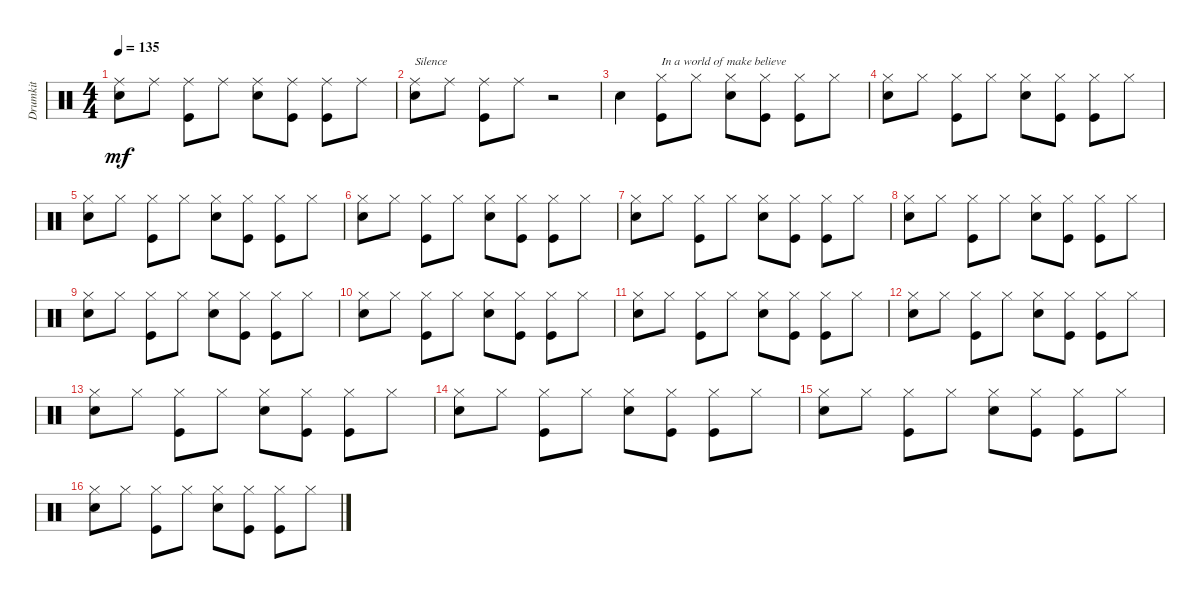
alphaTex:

\track ("Drumkit" "Drumkit") {instrument percussion}
\staff {score}
\articulation defaults
\ts (4 4)
\tempo 135
\clef neutral
\ks c
("Snare (hit) 2" "Ride (middle)").8{dy mf} "Ride (middle)".8 ("Kick (hit)" "Ride (middle)").8 "Ride (middle)".8 ("Snare (hit) 2" "Ride (middle)").8 ("Kick (hit)" "Ride (middle)").8 ("Kick (hit)" "Ride (middle)").8 "Ride (middle)".8 |
("Snare (hit) 2" "Ride (middle)").8{txt "Silence"} "Ride (middle)".8 ("Kick (hit)" "Ride (middle)").8 "Ride (middle)".8 r.2 |
"Snare (hit) 2".4 ("Hi-Hat (closed)" "Kick (hit)").8{txt "In a world of make believe"} "Hi-Hat (closed)".8 ("Hi-Hat (closed)" "Snare (hit) 2").8 ("Hi-Hat (closed)" "Kick (hit)").8 ("Hi-Hat (closed)" "Kick (hit)").8 "Hi-Hat (closed)".8 |
("Snare (hit) 2" "Hi-Hat (closed)").8 "Hi-Hat (closed)".8 ("Hi-Hat (closed)" "Kick (hit)").8 "Hi-Hat (closed)".8 ("Hi-Hat (closed)" "Snare (hit) 2").8 ("Hi-Hat (closed)" "Kick (hit)").8 ("Hi-Hat (closed)" "Kick (hit)").8 "Hi-Hat (closed)".8 |
("Snare (hit) 2" "Hi-Hat (closed)").8 "Hi-Hat (closed)".8 ("Hi-Hat (closed)" "Kick (hit)").8 "Hi-Hat (closed)".8 ("Hi-Hat (closed)" "Snare (hit) 2").8 ("Hi-Hat (closed)" "Kick (hit)").8 ("Hi-Hat (closed)" "Kick (hit)").8 "Hi-Hat (closed)".8 |
("Snare (hit) 2" "Hi-Hat (closed)").8 "Hi-Hat (closed)".8 ("Hi-Hat (closed)" "Kick (hit)").8 "Hi-Hat (closed)".8 ("Hi-Hat (closed)" "Snare (hit) 2").8 ("Hi-Hat (closed)" "Kick (hit)").8 ("Hi-Hat (closed)" "Kick (hit)").8 "Hi-Hat (closed)".8 |
("Snare (hit) 2" "Hi-Hat (closed)").8 "Hi-Hat (closed)".8 ("Hi-Hat (closed)" "Kick (hit)").8 "Hi-Hat (closed)".8 ("Hi-Hat (closed)" "Snare (hit) 2").8 ("Hi-Hat (closed)" "Kick (hit)").8 ("Hi-Hat (closed)" "Kick (hit)").8 "Hi-Hat (closed)".8 |
("Snare (hit) 2" "Hi-Hat (closed)").8 "Hi-Hat (closed)".8 ("Hi-Hat (closed)" "Kick (hit)").8 "Hi-Hat (closed)".8 ("Hi-Hat (closed)" "Snare (hit) 2").8 ("Hi-Hat (closed)" "Kick (hit)").8 ("Hi-Hat (closed)" "Kick (hit)").8 "Hi-Hat (closed)".8 |
("Snare (hit) 2" "Hi-Hat (closed)").8 "Hi-Hat (closed)".8 ("Hi-Hat (closed)" "Kick (hit)").8 "Hi-Hat (closed)".8 ("Hi-Hat (closed)" "Snare (hit) 2").8 ("Hi-Hat (closed)" "Kick (hit)").8 ("Hi-Hat (closed)" "Kick (hit)").8 "Hi-Hat (closed)".8 |
("Snare (hit) 2" "Hi-Hat (closed)").8 "Hi-Hat (closed)".8 ("Hi-Hat (closed)" "Kick (hit)").8 "Hi-Hat (closed)".8 ("Hi-Hat (closed)" "Snare (hit) 2").8 ("Hi-Hat (closed)" "Kick (hit)").8 ("Hi-Hat (closed)" "Kick (hit)").8 "Hi-Hat (closed)".8 |
("Snare (hit) 2" "Hi-Hat (closed)").8 "Hi-Hat (closed)".8 ("Hi-Hat (closed)" "Kick (hit)").8 "Hi-Hat (closed)".8 ("Hi-Hat (closed)" "Snare (hit) 2").8 ("Hi-Hat (closed)" "Kick (hit)").8 ("Hi-Hat (closed)" "Kick (hit)").8 "Hi-Hat (closed)".8 |
("Snare (hit) 2" "Hi-Hat (closed)").8 "Hi-Hat (closed)".8 ("Hi-Hat (closed)" "Kick (hit)").8 "Hi-Hat (closed)".8 ("Hi-Hat (closed)" "Snare (hit) 2").8 ("Hi-Hat (closed)" "Kick (hit)").8 ("Hi-Hat (closed)" "Kick (hit)").8 "Hi-Hat (closed)".8 |
("Snare (hit) 2" "Hi-Hat (closed)").8 "Hi-Hat (closed)".8 ("Hi-Hat (closed)" "Kick (hit)").8 "Hi-Hat (closed)".8 ("Hi-Hat (closed)" "Snare (hit) 2").8 ("Hi-Hat (closed)" "Kick (hit)").8 ("Hi-Hat (closed)" "Kick (hit)").8 "Hi-Hat (closed)".8 |
("Snare (hit) 2" "Hi-Hat (closed)").8 "Hi-Hat (closed)".8 ("Hi-Hat (closed)" "Kick (hit)").8 "Hi-Hat (closed)".8 ("Hi-Hat (closed)" "Snare (hit) 2").8 ("Hi-Hat (closed)" "Kick (hit)").8 ("Hi-Hat (closed)" "Kick (hit)").8 "Hi-Hat (closed)".8 |
("Snare (hit) 2" "Hi-Hat (closed)").8 "Hi-Hat (closed)".8 ("Hi-Hat (closed)" "Kick (hit)").8 "Hi-Hat (closed)".8 ("Hi-Hat (closed)" "Snare (hit) 2").8 ("Hi-Hat (closed)" "Kick (hit)").8 ("Hi-Hat (closed)" "Kick (hit)").8 "Hi-Hat (closed)".8 |
("Snare (hit) 2" "Hi-Hat (closed)").8 "Hi-Hat (closed)".8 ("Hi-Hat (closed)" "Kick (hit)").8 "Hi-Hat (closed)".8 ("Hi-Hat (closed)" "Snare (hit) 2").8 ("Hi-Hat (closed)" "Kick (hit)").8 ("Hi-Hat (closed)" "Kick (hit)").8 "Hi-Hat (closed)".8
